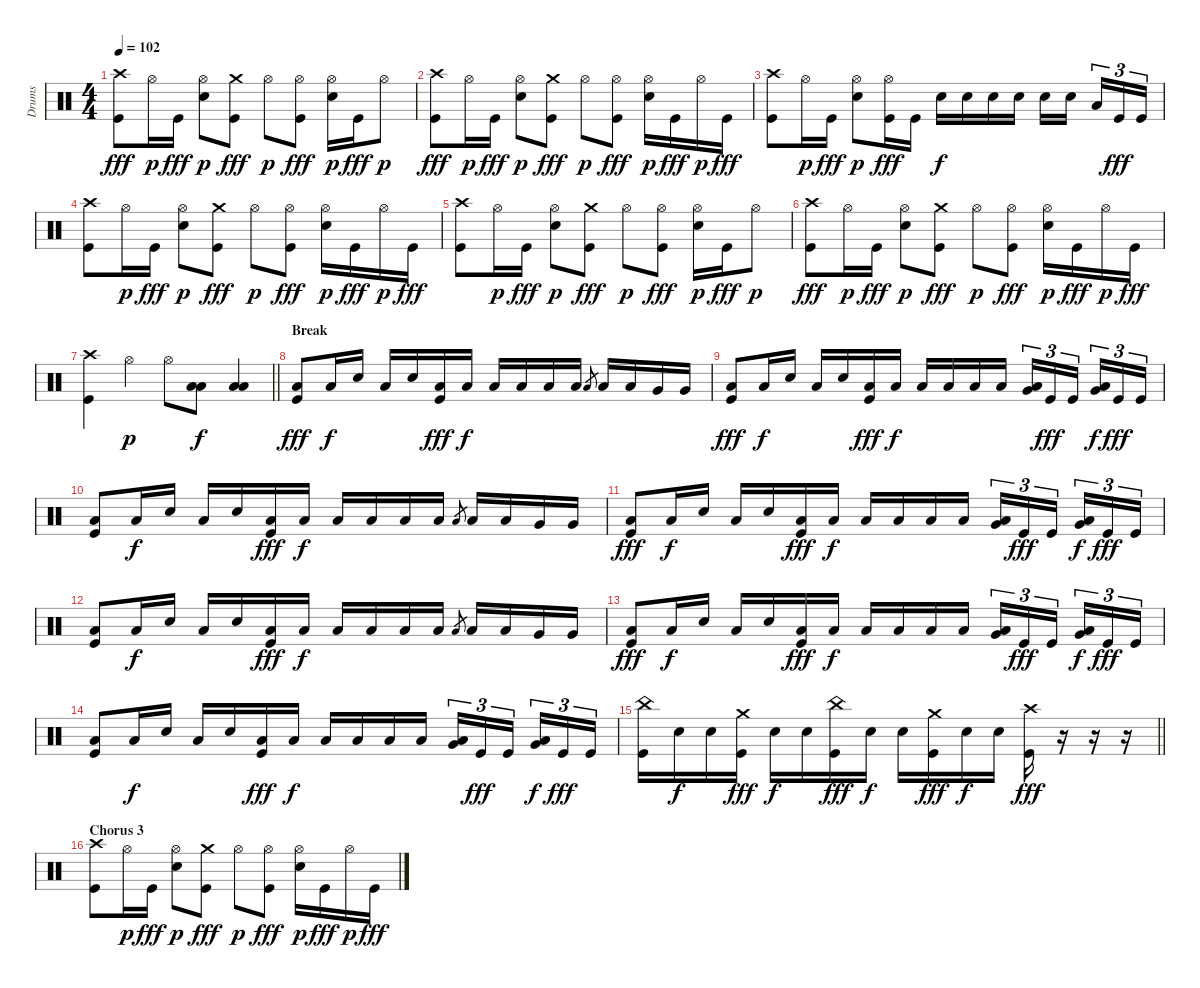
\track ("Drums" "Drums") {instrument percussion}
\staff
\articulation defaults
\ts (4 4)
\tempo 102
\clef neutral
\ks c
("Crash high (hit)" "Kick (hit)").8{dy fff} "Hi-Hat (open)".16{dy p} "Kick (hit)".16{dy fff} ("Hi-Hat (open)" "Electric Snare (hit)").8{dy p} ("Crash medium (hit)" "Kick (hit)").8{dy fff} "Hi-Hat (open)".8{dy p} ("Hi-Hat (open)" "Kick (hit)").8{dy fff} ("Hi-Hat (open)" "Electric Snare (hit)").16{dy p} "Kick (hit)".16{dy fff} "Hi-Hat (open)".8{dy p} |
("Crash high (hit)" "Kick (hit)").8{dy fff} "Hi-Hat (open)".16{dy p} "Kick (hit)".16{dy fff} ("Hi-Hat (open)" "Electric Snare (hit)").8{dy p} ("Crash medium (hit)" "Kick (hit)").8{dy fff} "Hi-Hat (open)".8{dy p} ("Hi-Hat (open)" "Kick (hit)").8{dy fff} ("Hi-Hat (open)" "Electric Snare (hit)").16{dy p} "Kick (hit)".16{dy fff} "Hi-Hat (open)".16{dy p} "Kick (hit)".16{dy fff} |
("Crash high (hit)" "Kick (hit)").8 "Hi-Hat (open)".16{dy p} "Kick (hit)".16{dy fff} ("Hi-Hat (open)" "Electric Snare (hit)").8{dy p} ("Hi-Hat (open)" "Kick (hit)").16{dy fff} "Kick (hit)".16 "Electric Snare (hit)".16{dy f} "Electric Snare (hit)".16 "Electric Snare (hit)".16 "Electric Snare (hit)".16 "Electric Snare (hit)".16 "Electric Snare (hit)".16{beam splitsecondary} "Low Floor Tom (hit)".16{tu (3 2)} "Kick (hit)".16{tu (3 2) dy fff} "Kick (hit)".16{tu (3 2)} |
("Crash high (hit)" "Kick (hit)").8 "Hi-Hat (open)".16{dy p} "Kick (hit)".16{dy fff} ("Hi-Hat (open)" "Electric Snare (hit)").8{dy p} ("Crash medium (hit)" "Kick (hit)").8{dy fff} "Hi-Hat (open)".8{dy p} ("Hi-Hat (open)" "Kick (hit)").8{dy fff} ("Hi-Hat (open)" "Electric Snare (hit)").16{dy p} "Kick (hit)".16{dy fff} "Hi-Hat (open)".16{dy p} "Kick (hit)".16{dy fff} |
("Crash high (hit)" "Kick (hit)").8 "Hi-Hat (open)".16{dy p} "Kick (hit)".16{dy fff} ("Hi-Hat (open)" "Electric Snare (hit)").8{dy p} ("Crash medium (hit)" "Kick (hit)").8{dy fff} "Hi-Hat (open)".8{dy p} ("Hi-Hat (open)" "Kick (hit)").8{dy fff} ("Hi-Hat (open)" "Electric Snare (hit)").16{dy p} "Kick (hit)".16{dy fff} "Hi-Hat (open)".8{dy p} |
("Crash high (hit)" "Kick (hit)").8{dy fff} "Hi-Hat (open)".16{dy p} "Kick (hit)".16{dy fff} ("Hi-Hat (open)" "Electric Snare (hit)").8{dy p} ("Crash medium (hit)" "Kick (hit)").8{dy fff} "Hi-Hat (open)".8{dy p} ("Hi-Hat (open)" "Kick (hit)").8{dy fff} ("Hi-Hat (open)" "Electric Snare (hit)").16{dy p} "Kick (hit)".16{dy fff} "Hi-Hat (open)".16{dy p} "Kick (hit)".16{dy fff} |
\barLineRight lightlight
("Crash high (hit)" "Kick (hit)").4 "Hi-Hat (open)".4{dy p} "Hi-Hat (open)".8 ("Low Tom (hit)" "Low Floor Tom (hit)").8{dy f} ("Low Tom (hit)" "Low Floor Tom (hit)").4 |
\section ("" "Break")
("Low Floor Tom (hit)" "Kick (hit)").8{dy fff} "Low Floor Tom (hit)".16{dy f} "Electric Snare (hit)".16 "Low Floor Tom (hit)".16 "Electric Snare (hit)".16 ("Low Floor Tom (hit)" "Kick (hit)").16{dy fff} "Low Floor Tom (hit)".16{dy f} "Low Tom (hit)".16 "Low Floor Tom (hit)".16 "Low Tom (hit)".16 "Low Floor Tom (hit)".16 "Low Tom (hit)".8{gr} "Low Tom (hit)".16 "Low Tom (hit)".16 "Very Low Tom (hit)".16 "Very Low Tom (hit)".16 |
("Low Floor Tom (hit)" "Kick (hit)").8{dy fff} "Low Floor Tom (hit)".16{dy f} "Electric Snare (hit)".16 "Low Floor Tom (hit)".16 "Electric Snare (hit)".16 ("Low Floor Tom (hit)" "Kick (hit)").16{dy fff} "Low Floor Tom (hit)".16{dy f} "Low Tom (hit)".16 "Low Floor Tom (hit)".16 "Low Tom (hit)".16 "Low Floor Tom (hit)".16 ("Low Tom (hit)" "Very Low Tom (hit)").16{tu (3 2)} "Kick (hit)".16{tu (3 2) dy fff} "Kick (hit)".16{tu (3 2) beam splitsecondary} ("Very Low Tom (hit)" "Low Floor Tom (hit)").16{tu (3 2) dy f} "Kick (hit)".16{tu (3 2) dy fff} "Kick (hit)".16{tu (3 2)} |
("Low Floor Tom (hit)" "Kick (hit)").8 "Low Floor Tom (hit)".16{dy f} "Electric Snare (hit)".16 "Low Floor Tom (hit)".16 "Electric Snare (hit)".16 ("Low Floor Tom (hit)" "Kick (hit)").16{dy fff} "Low Floor Tom (hit)".16{dy f} "Low Tom (hit)".16 "Low Floor Tom (hit)".16 "Low Tom (hit)".16 "Low Floor Tom (hit)".16 "Low Tom (hit)".8{gr} "Low Tom (hit)".16 "Low Tom (hit)".16 "Very Low Tom (hit)".16 "Very Low Tom (hit)".16 |
("Low Floor Tom (hit)" "Kick (hit)").8{dy fff} "Low Floor Tom (hit)".16{dy f} "Electric Snare (hit)".16 "Low Floor Tom (hit)".16 "Electric Snare (hit)".16 ("Low Floor Tom (hit)" "Kick (hit)").16{dy fff} "Low Floor Tom (hit)".16{dy f} "Low Tom (hit)".16 "Low Floor Tom (hit)".16 "Low Tom (hit)".16 "Low Floor Tom (hit)".16 ("Low Tom (hit)" "Very Low Tom (hit)").16{tu (3 2)} "Kick (hit)".16{tu (3 2) dy fff} "Kick (hit)".16{tu (3 2) beam splitsecondary} ("Very Low Tom (hit)" "Low Floor Tom (hit)").16{tu (3 2) dy f} "Kick (hit)".16{tu (3 2) dy fff} "Kick (hit)".16{tu (3 2)} |
("Low Floor Tom (hit)" "Kick (hit)").8 "Low Floor Tom (hit)".16{dy f} "Electric Snare (hit)".16 "Low Floor Tom (hit)".16 "Electric Snare (hit)".16 ("Low Floor Tom (hit)" "Kick (hit)").16{dy fff} "Low Floor Tom (hit)".16{dy f} "Low Tom (hit)".16 "Low Floor Tom (hit)".16 "Low Tom (hit)".16 "Low Floor Tom (hit)".16 "Low Tom (hit)".8{gr} "Low Tom (hit)".16 "Low Tom (hit)".16 "Very Low Tom (hit)".16 "Very Low Tom (hit)".16 |
("Low Floor Tom (hit)" "Kick (hit)").8{dy fff} "Low Floor Tom (hit)".16{dy f} "Electric Snare (hit)".16 "Low Floor Tom (hit)".16 "Electric Snare (hit)".16 ("Low Floor Tom (hit)" "Kick (hit)").16{dy fff} "Low Floor Tom (hit)".16{dy f} "Low Tom (hit)".16 "Low Floor Tom (hit)".16 "Low Tom (hit)".16 "Low Floor Tom (hit)".16 ("Low Tom (hit)" "Very Low Tom (hit)").16{tu (3 2)} "Kick (hit)".16{tu (3 2) dy fff} "Kick (hit)".16{tu (3 2) beam splitsecondary} ("Very Low Tom (hit)" "Low Floor Tom (hit)").16{tu (3 2) dy f} "Kick (hit)".16{tu (3 2) dy fff} "Kick (hit)".16{tu (3 2)} |
("Low Floor Tom (hit)" "Kick (hit)").8 "Low Floor Tom (hit)".16{dy f} "Electric Snare (hit)".16 "Low Floor Tom (hit)".16 "Electric Snare (hit)".16 ("Low Floor Tom (hit)" "Kick (hit)").16{dy fff} "Low Floor Tom (hit)".16{dy f} "Low Tom (hit)".16 "Low Floor Tom (hit)".16 "Low Tom (hit)".16 "Low Floor Tom (hit)".16 ("Low Tom (hit)" "Very Low Tom (hit)").16{tu (3 2)} "Kick (hit)".16{tu (3 2) dy fff} "Kick (hit)".16{tu (3 2) beam splitsecondary} ("Very Low Tom (hit)" "Low Floor Tom (hit)").16{tu (3 2) dy f} "Kick (hit)".16{tu (3 2) dy fff} "Kick (hit)".16{tu (3 2)} |
\barLineRight lightlight
("China (hit)" "Kick (hit)").16 "Electric Snare (hit)".16{dy f} "Electric Snare (hit)".16 ("Crash medium (hit)" "Kick (hit)").16{dy fff} "Electric Snare (hit)".16{dy f} "Electric Snare (hit)".16 ("China (hit)" "Kick (hit)").16{dy fff} "Electric Snare (hit)".16{dy f} "Electric Snare (hit)".16 ("Crash medium (hit)" "Kick (hit)").16{dy fff} "Electric Snare (hit)".16{dy f} "Electric Snare (hit)".16 ("Crash high (hit)" "Kick (hit)").16{dy fff} r.16 r.16 r.16 |
\section ("" "Chorus 3")
("Crash high (hit)" "Kick (hit)").8 "Hi-Hat (open)".16{dy p} "Kick (hit)".16{dy fff} ("Hi-Hat (open)" "Electric Snare (hit)").8{dy p} ("Crash medium (hit)" "Kick (hit)").8{dy fff} "Hi-Hat (open)".8{dy p} ("Hi-Hat (open)" "Kick (hit)").8{dy fff} ("Hi-Hat (open)" "Electric Snare (hit)").16{dy p} "Kick (hit)".16{dy fff} "Hi-Hat (open)".16{dy p} "Kick (hit)".16{dy fff}
